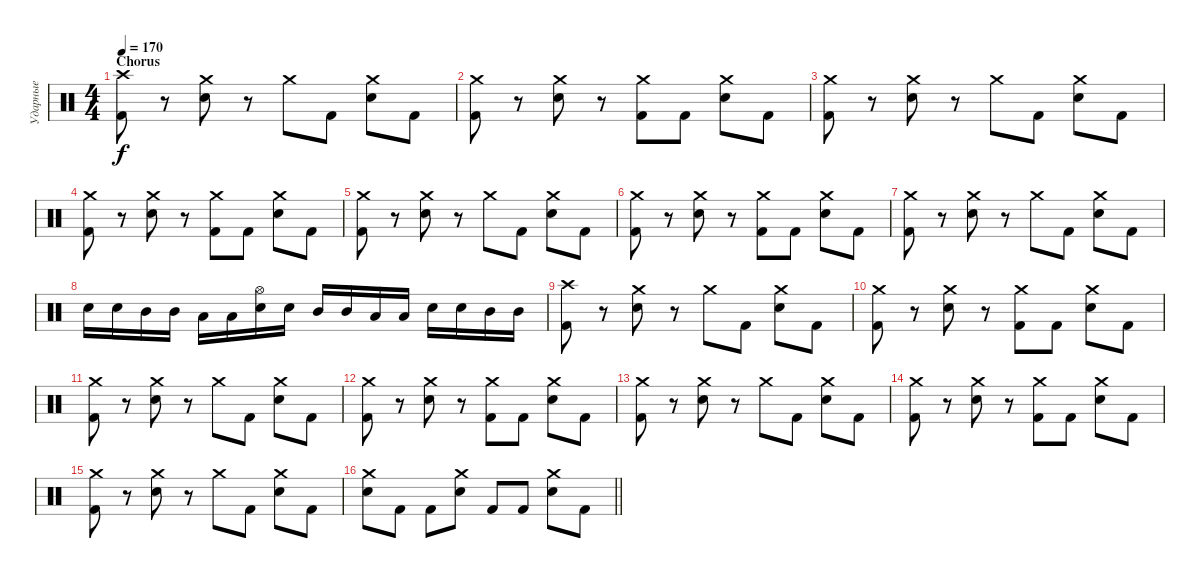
\track ("Ударные" "Ударные") {instrument percussion}
\staff {score}
\articulation defaults
\ts (4 4)
\section ("" "Chorus")
\tempo 170
\clef neutral
\ks c
("Crash high (hit)" "Kick (hit) 2").8{dy f} r.8 ("Crash medium (hit)" "Electric Snare (hit)").8 r.8 "Crash medium (hit)".8 "Kick (hit) 2".8 ("Crash medium (hit)" "Electric Snare (hit)").8 "Kick (hit) 2".8 |
("Crash medium (hit)" "Kick (hit) 2").8 r.8 ("Crash medium (hit)" "Electric Snare (hit)").8 r.8 ("Crash medium (hit)" "Kick (hit) 2").8 "Kick (hit) 2".8 ("Crash medium (hit)" "Electric Snare (hit)").8 "Kick (hit) 2".8 |
("Crash medium (hit)" "Kick (hit) 2").8 r.8 ("Crash medium (hit)" "Electric Snare (hit)").8 r.8 "Crash medium (hit)".8 "Kick (hit) 2".8 ("Crash medium (hit)" "Electric Snare (hit)").8 "Kick (hit) 2".8 |
("Crash medium (hit)" "Kick (hit) 2").8 r.8 ("Crash medium (hit)" "Electric Snare (hit)").8 r.8 ("Crash medium (hit)" "Kick (hit) 2").8 "Kick (hit) 2".8 ("Crash medium (hit)" "Electric Snare (hit)").8 "Kick (hit) 2".8 |
("Crash medium (hit)" "Kick (hit) 2").8 r.8 ("Crash medium (hit)" "Electric Snare (hit)").8 r.8 "Crash medium (hit)".8 "Kick (hit) 2".8 ("Crash medium (hit)" "Electric Snare (hit)").8 "Kick (hit) 2".8 |
("Crash medium (hit)" "Kick (hit) 2").8 r.8 ("Crash medium (hit)" "Electric Snare (hit)").8 r.8 ("Crash medium (hit)" "Kick (hit) 2").8 "Kick (hit) 2".8 ("Crash medium (hit)" "Electric Snare (hit)").8 "Kick (hit) 2".8 |
("Crash medium (hit)" "Kick (hit) 2").8 r.8 ("Crash medium (hit)" "Electric Snare (hit)").8 r.8 "Crash medium (hit)".8 "Kick (hit) 2".8 ("Crash medium (hit)" "Electric Snare (hit)").8 "Kick (hit) 2".8 |
"Electric Snare (hit)".16 "Electric Snare (hit)".16 "Mid Tom (hit)".16 "Mid Tom (hit)".16 "Low Tom (hit)".16 "Low Tom (hit)".16 ("Hi-Hat (open)" "Electric Snare (hit)").16 "Electric Snare (hit)".16 "Mid Tom (hit)".16 "Mid Tom (hit)".16 "Low Tom (hit)".16 "Low Tom (hit)".16 "Electric Snare (hit)".16 "Electric Snare (hit)".16 "Mid Tom (hit)".16 "Mid Tom (hit)".16 |
("Crash high (hit)" "Kick (hit) 2").8 r.8 ("Crash medium (hit)" "Electric Snare (hit)").8 r.8 "Crash medium (hit)".8 "Kick (hit) 2".8 ("Crash medium (hit)" "Electric Snare (hit)").8 "Kick (hit) 2".8 |
("Crash medium (hit)" "Kick (hit) 2").8 r.8 ("Crash medium (hit)" "Electric Snare (hit)").8 r.8 ("Crash medium (hit)" "Kick (hit) 2").8 "Kick (hit) 2".8 ("Crash medium (hit)" "Electric Snare (hit)").8 "Kick (hit) 2".8 |
("Crash medium (hit)" "Kick (hit) 2").8 r.8 ("Crash medium (hit)" "Electric Snare (hit)").8 r.8 "Crash medium (hit)".8 "Kick (hit) 2".8 ("Crash medium (hit)" "Electric Snare (hit)").8 "Kick (hit) 2".8 |
("Crash medium (hit)" "Kick (hit) 2").8 r.8 ("Crash medium (hit)" "Electric Snare (hit)").8 r.8 ("Crash medium (hit)" "Kick (hit) 2").8 "Kick (hit) 2".8 ("Crash medium (hit)" "Electric Snare (hit)").8 "Kick (hit) 2".8 |
("Crash medium (hit)" "Kick (hit) 2").8 r.8 ("Crash medium (hit)" "Electric Snare (hit)").8 r.8 "Crash medium (hit)".8 "Kick (hit) 2".8 ("Crash medium (hit)" "Electric Snare (hit)").8 "Kick (hit) 2".8 |
("Crash medium (hit)" "Kick (hit) 2").8 r.8 ("Crash medium (hit)" "Electric Snare (hit)").8 r.8 ("Crash medium (hit)" "Kick (hit) 2").8 "Kick (hit) 2".8 ("Crash medium (hit)" "Electric Snare (hit)").8 "Kick (hit) 2".8 |
("Crash medium (hit)" "Kick (hit) 2").8 r.8 ("Crash medium (hit)" "Electric Snare (hit)").8 r.8 "Crash medium (hit)".8 "Kick (hit) 2".8 ("Crash medium (hit)" "Electric Snare (hit)").8 "Kick (hit) 2".8 |
\barLineRight lightlight
("Crash medium (hit)" "Electric Snare (hit)").8 "Kick (hit) 2".8 "Kick (hit) 2".8 ("Crash medium (hit)" "Electric Snare (hit)").8 "Kick (hit) 2".8 "Kick (hit) 2".8 ("Crash medium (hit)" "Electric Snare (hit)").8 "Kick (hit) 2".8
